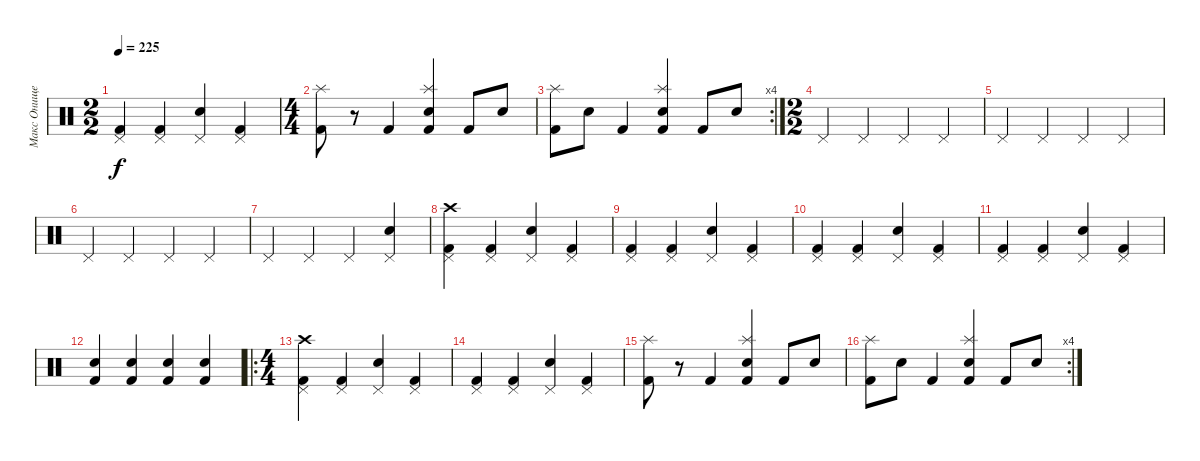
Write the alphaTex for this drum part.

\track ("Макс Онищенко" "Макс Онище") {instrument percussion}
\staff {score}
\articulation defaults
\ts (2 2)
\tempo 225
\clef neutral
\ks c
("Pedal Hi-Hat (hit)" "Kick (hit) 2").4{dy f} ("Pedal Hi-Hat (hit)" "Kick (hit) 2").4 ("Pedal Hi-Hat (hit)" "Snare (hit) 2").4 ("Pedal Hi-Hat (hit)" "Kick (hit) 2").4 |
\ts (4 4)
("Splash (hit)" "Kick (hit) 2").8 r.8 "Kick (hit) 2".4 ("Splash (hit)" "Kick (hit) 2" "Electric Snare (hit)").4 "Kick (hit) 2".8 "Electric Snare (hit)".8 |
\rc 4
("Splash (hit)" "Kick (hit) 2").8 "Electric Snare (hit)".8 "Kick (hit) 2".4 ("Splash (hit)" "Kick (hit) 2" "Electric Snare (hit)").4 "Kick (hit) 2".8 "Electric Snare (hit)".8 |
\ts (2 2)
"Pedal Hi-Hat (hit)".4 "Pedal Hi-Hat (hit)".4 "Pedal Hi-Hat (hit)".4 "Pedal Hi-Hat (hit)".4 |
"Pedal Hi-Hat (hit)".4 "Pedal Hi-Hat (hit)".4 "Pedal Hi-Hat (hit)".4 "Pedal Hi-Hat (hit)".4 |
"Pedal Hi-Hat (hit)".4 "Pedal Hi-Hat (hit)".4 "Pedal Hi-Hat (hit)".4 "Pedal Hi-Hat (hit)".4 |
"Pedal Hi-Hat (hit)".4 "Pedal Hi-Hat (hit)".4 "Pedal Hi-Hat (hit)".4 ("Snare (hit) 2" "Pedal Hi-Hat (hit)").4 |
("Kick (hit) 2" "Pedal Hi-Hat (hit)" "Crash high (hit)").4 ("Kick (hit) 2" "Pedal Hi-Hat (hit)").4 ("Snare (hit) 2" "Pedal Hi-Hat (hit)").4 ("Kick (hit) 2" "Pedal Hi-Hat (hit)").4 |
("Kick (hit) 2" "Pedal Hi-Hat (hit)").4 ("Kick (hit) 2" "Pedal Hi-Hat (hit)").4 ("Snare (hit) 2" "Pedal Hi-Hat (hit)").4 ("Kick (hit) 2" "Pedal Hi-Hat (hit)").4 |
("Kick (hit) 2" "Pedal Hi-Hat (hit)").4 ("Kick (hit) 2" "Pedal Hi-Hat (hit)").4 ("Snare (hit) 2" "Pedal Hi-Hat (hit)").4 ("Kick (hit) 2" "Pedal Hi-Hat (hit)").4 |
("Kick (hit) 2" "Pedal Hi-Hat (hit)").4 ("Kick (hit) 2" "Pedal Hi-Hat (hit)").4 ("Snare (hit) 2" "Pedal Hi-Hat (hit)").4 ("Kick (hit) 2" "Pedal Hi-Hat (hit)").4 |
("Kick (hit) 2" "Snare (hit) 2").4 ("Kick (hit) 2" "Snare (hit) 2").4 ("Kick (hit) 2" "Snare (hit) 2").4 ("Kick (hit) 2" "Snare (hit) 2").4 |
\ro
\ts (4 4)
("Pedal Hi-Hat (hit)" "Kick (hit) 2" "Crash high (hit)").4 ("Pedal Hi-Hat (hit)" "Kick (hit) 2").4 ("Pedal Hi-Hat (hit)" "Snare (hit) 2").4 ("Pedal Hi-Hat (hit)" "Kick (hit) 2").4 |
("Pedal Hi-Hat (hit)" "Kick (hit) 2").4 ("Pedal Hi-Hat (hit)" "Kick (hit) 2").4 ("Pedal Hi-Hat (hit)" "Snare (hit) 2").4 ("Pedal Hi-Hat (hit)" "Kick (hit) 2").4 |
("Splash (hit)" "Kick (hit) 2").8 r.8 "Kick (hit) 2".4 ("Splash (hit)" "Kick (hit) 2" "Electric Snare (hit)").4 "Kick (hit) 2".8 "Electric Snare (hit)".8 |
\rc 4
("Splash (hit)" "Kick (hit) 2").8 "Electric Snare (hit)".8 "Kick (hit) 2".4 ("Splash (hit)" "Kick (hit) 2" "Electric Snare (hit)").4 "Kick (hit) 2".8 "Electric Snare (hit)".8
